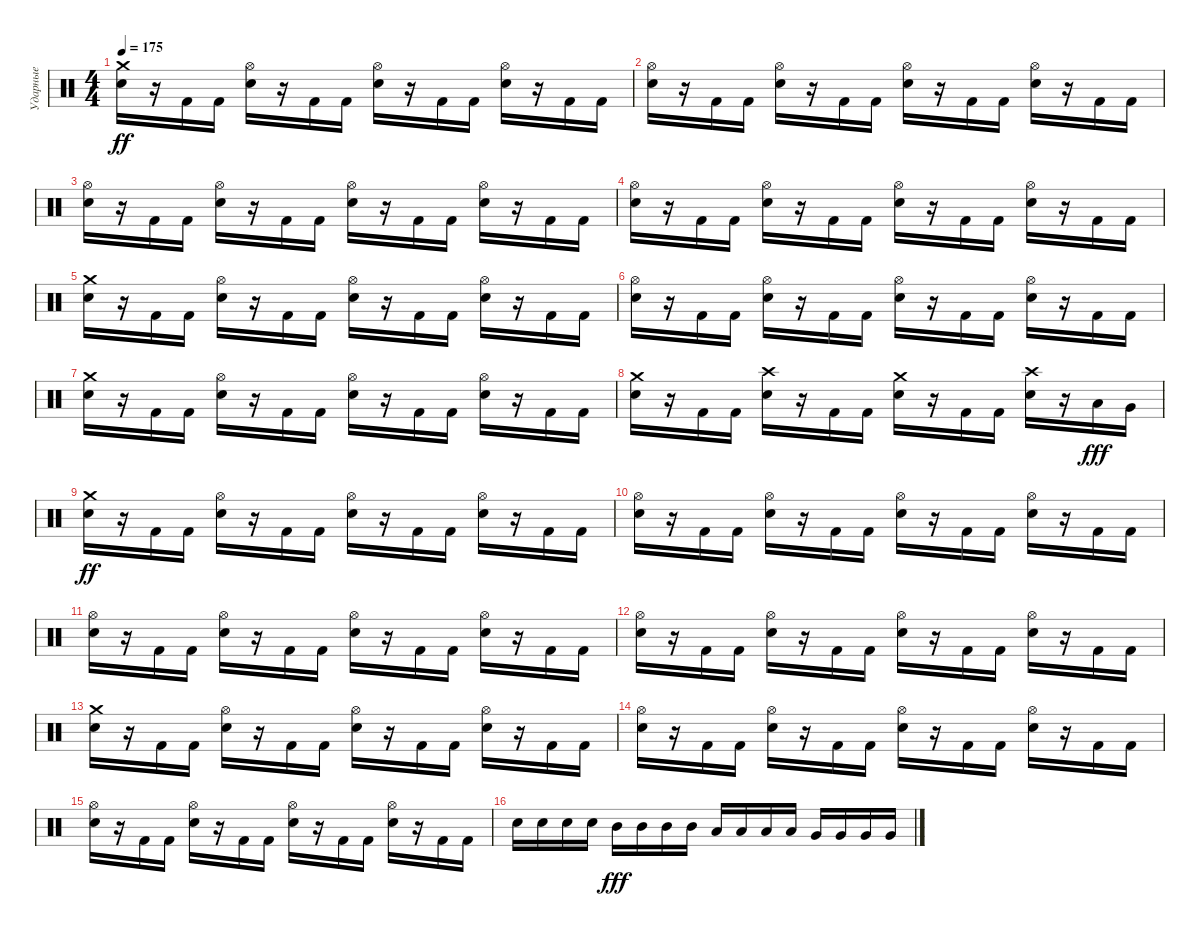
\track ("Ударные" "Ударные") {instrument percussion}
\staff {score}
\articulation defaults
\ts (4 4)
\tempo 175
\clef neutral
\ks c
("Electric Snare (hit)" "Crash medium (hit)").16{dy ff} r.16 "Kick (hit) 2".16 "Kick (hit) 2".16 ("Electric Snare (hit)" "Hi-Hat (open)").16 r.16 "Kick (hit) 2".16 "Kick (hit) 2".16 ("Electric Snare (hit)" "Hi-Hat (open)").16 r.16 "Kick (hit) 2".16 "Kick (hit) 2".16 ("Electric Snare (hit)" "Hi-Hat (open)").16 r.16 "Kick (hit) 2".16 "Kick (hit) 2".16 |
("Electric Snare (hit)" "Hi-Hat (open)").16 r.16 "Kick (hit) 2".16 "Kick (hit) 2".16 ("Electric Snare (hit)" "Hi-Hat (open)").16 r.16 "Kick (hit) 2".16 "Kick (hit) 2".16 ("Electric Snare (hit)" "Hi-Hat (open)").16 r.16 "Kick (hit) 2".16 "Kick (hit) 2".16 ("Electric Snare (hit)" "Hi-Hat (open)").16 r.16 "Kick (hit) 2".16 "Kick (hit) 2".16 |
("Electric Snare (hit)" "Hi-Hat (open)").16 r.16 "Kick (hit) 2".16 "Kick (hit) 2".16 ("Electric Snare (hit)" "Hi-Hat (open)").16 r.16 "Kick (hit) 2".16 "Kick (hit) 2".16 ("Electric Snare (hit)" "Hi-Hat (open)").16 r.16 "Kick (hit) 2".16 "Kick (hit) 2".16 ("Electric Snare (hit)" "Hi-Hat (open)").16 r.16 "Kick (hit) 2".16 "Kick (hit) 2".16 |
("Electric Snare (hit)" "Hi-Hat (open)").16 r.16 "Kick (hit) 2".16 "Kick (hit) 2".16 ("Electric Snare (hit)" "Hi-Hat (open)").16 r.16 "Kick (hit) 2".16 "Kick (hit) 2".16 ("Electric Snare (hit)" "Hi-Hat (open)").16 r.16 "Kick (hit) 2".16 "Kick (hit) 2".16 ("Electric Snare (hit)" "Hi-Hat (open)").16 r.16 "Kick (hit) 2".16 "Kick (hit) 2".16 |
("Electric Snare (hit)" "Crash medium (hit)").16 r.16 "Kick (hit) 2".16 "Kick (hit) 2".16 ("Electric Snare (hit)" "Hi-Hat (open)").16 r.16 "Kick (hit) 2".16 "Kick (hit) 2".16 ("Electric Snare (hit)" "Hi-Hat (open)").16 r.16 "Kick (hit) 2".16 "Kick (hit) 2".16 ("Electric Snare (hit)" "Hi-Hat (open)").16 r.16 "Kick (hit) 2".16 "Kick (hit) 2".16 |
("Electric Snare (hit)" "Hi-Hat (open)").16 r.16 "Kick (hit) 2".16 "Kick (hit) 2".16 ("Electric Snare (hit)" "Hi-Hat (open)").16 r.16 "Kick (hit) 2".16 "Kick (hit) 2".16 ("Electric Snare (hit)" "Hi-Hat (open)").16 r.16 "Kick (hit) 2".16 "Kick (hit) 2".16 ("Electric Snare (hit)" "Hi-Hat (open)").16 r.16 "Kick (hit) 2".16 "Kick (hit) 2".16 |
("Electric Snare (hit)" "Crash medium (hit)").16 r.16 "Kick (hit) 2".16 "Kick (hit) 2".16 ("Electric Snare (hit)" "Hi-Hat (open)").16 r.16 "Kick (hit) 2".16 "Kick (hit) 2".16 ("Electric Snare (hit)" "Hi-Hat (open)").16 r.16 "Kick (hit) 2".16 "Kick (hit) 2".16 ("Electric Snare (hit)" "Hi-Hat (open)").16 r.16 "Kick (hit) 2".16 "Kick (hit) 2".16 |
("Electric Snare (hit)" "Crash medium (hit)").16 r.16 "Kick (hit) 2".16 "Kick (hit) 2".16 ("Electric Snare (hit)" "Crash high (hit)").16 r.16 "Kick (hit) 2".16 "Kick (hit) 2".16 ("Electric Snare (hit)" "Crash medium (hit)").16 r.16 "Kick (hit) 2".16 "Kick (hit) 2".16 ("Electric Snare (hit)" "Crash high (hit)").16 r.16 "Low Tom (hit)".16{dy fff} "Very Low Tom (hit)".16 |
("Electric Snare (hit)" "Crash medium (hit)").16{dy ff} r.16 "Kick (hit) 2".16 "Kick (hit) 2".16 ("Electric Snare (hit)" "Hi-Hat (open)").16 r.16 "Kick (hit) 2".16 "Kick (hit) 2".16 ("Electric Snare (hit)" "Hi-Hat (open)").16 r.16 "Kick (hit) 2".16 "Kick (hit) 2".16 ("Electric Snare (hit)" "Hi-Hat (open)").16 r.16 "Kick (hit) 2".16 "Kick (hit) 2".16 |
("Electric Snare (hit)" "Hi-Hat (open)").16 r.16 "Kick (hit) 2".16 "Kick (hit) 2".16 ("Electric Snare (hit)" "Hi-Hat (open)").16 r.16 "Kick (hit) 2".16 "Kick (hit) 2".16 ("Electric Snare (hit)" "Hi-Hat (open)").16 r.16 "Kick (hit) 2".16 "Kick (hit) 2".16 ("Electric Snare (hit)" "Hi-Hat (open)").16 r.16 "Kick (hit) 2".16 "Kick (hit) 2".16 |
("Electric Snare (hit)" "Hi-Hat (open)").16 r.16 "Kick (hit) 2".16 "Kick (hit) 2".16 ("Electric Snare (hit)" "Hi-Hat (open)").16 r.16 "Kick (hit) 2".16 "Kick (hit) 2".16 ("Electric Snare (hit)" "Hi-Hat (open)").16 r.16 "Kick (hit) 2".16 "Kick (hit) 2".16 ("Electric Snare (hit)" "Hi-Hat (open)").16 r.16 "Kick (hit) 2".16 "Kick (hit) 2".16 |
("Electric Snare (hit)" "Hi-Hat (open)").16 r.16 "Kick (hit) 2".16 "Kick (hit) 2".16 ("Electric Snare (hit)" "Hi-Hat (open)").16 r.16 "Kick (hit) 2".16 "Kick (hit) 2".16 ("Electric Snare (hit)" "Hi-Hat (open)").16 r.16 "Kick (hit) 2".16 "Kick (hit) 2".16 ("Electric Snare (hit)" "Hi-Hat (open)").16 r.16 "Kick (hit) 2".16 "Kick (hit) 2".16 |
("Electric Snare (hit)" "Crash medium (hit)").16 r.16 "Kick (hit) 2".16 "Kick (hit) 2".16 ("Electric Snare (hit)" "Hi-Hat (open)").16 r.16 "Kick (hit) 2".16 "Kick (hit) 2".16 ("Electric Snare (hit)" "Hi-Hat (open)").16 r.16 "Kick (hit) 2".16 "Kick (hit) 2".16 ("Electric Snare (hit)" "Hi-Hat (open)").16 r.16 "Kick (hit) 2".16 "Kick (hit) 2".16 |
("Electric Snare (hit)" "Hi-Hat (open)").16 r.16 "Kick (hit) 2".16 "Kick (hit) 2".16 ("Electric Snare (hit)" "Hi-Hat (open)").16 r.16 "Kick (hit) 2".16 "Kick (hit) 2".16 ("Electric Snare (hit)" "Hi-Hat (open)").16 r.16 "Kick (hit) 2".16 "Kick (hit) 2".16 ("Electric Snare (hit)" "Hi-Hat (open)").16 r.16 "Kick (hit) 2".16 "Kick (hit) 2".16 |
("Electric Snare (hit)" "Hi-Hat (open)").16 r.16 "Kick (hit) 2".16 "Kick (hit) 2".16 ("Electric Snare (hit)" "Hi-Hat (open)").16 r.16 "Kick (hit) 2".16 "Kick (hit) 2".16 ("Electric Snare (hit)" "Hi-Hat (open)").16 r.16 "Kick (hit) 2".16 "Kick (hit) 2".16 ("Electric Snare (hit)" "Hi-Hat (open)").16 r.16 "Kick (hit) 2".16 "Kick (hit) 2".16 |
"Electric Snare (hit)".16 "Electric Snare (hit)".16 "Electric Snare (hit)".16 "Electric Snare (hit)".16 "Mid Tom (hit)".16{dy fff} "Mid Tom (hit)".16 "Mid Tom (hit)".16 "Mid Tom (hit)".16 "Low Tom (hit)".16 "Low Tom (hit)".16 "Low Tom (hit)".16 "Low Tom (hit)".16 "Very Low Tom (hit)".16 "Very Low Tom (hit)".16 "Very Low Tom (hit)".16 "Very Low Tom (hit)".16
